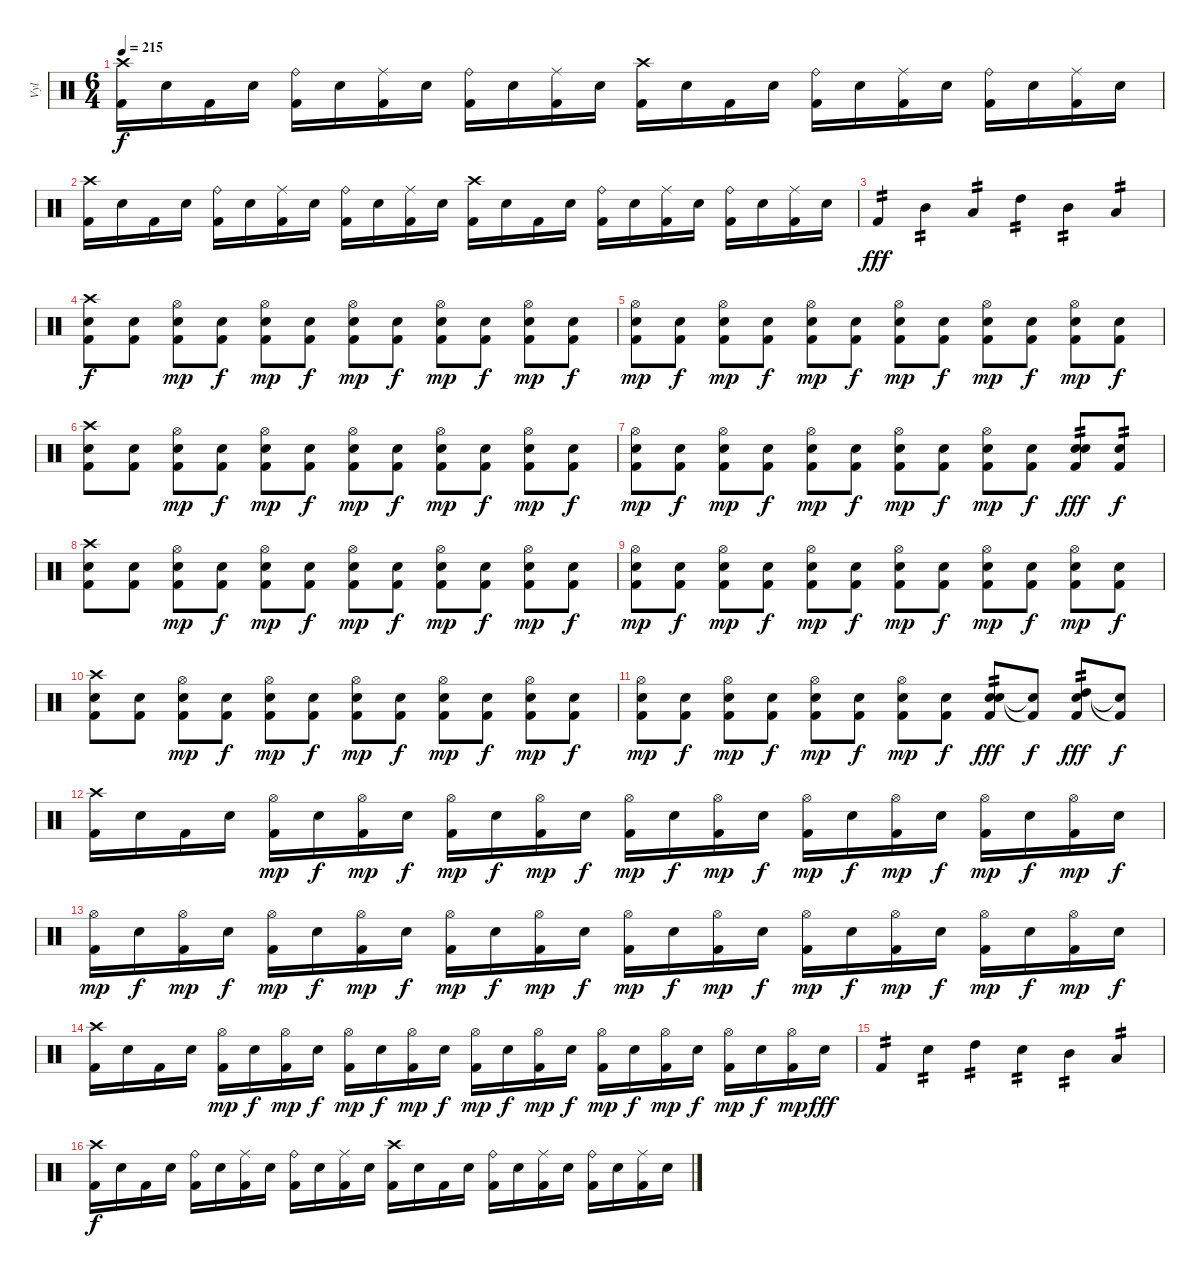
\track ("Vyl" "Vyl") {instrument percussion}
\staff {score}
\articulation defaults
\ts (6 4)
\tempo 215
\clef neutral
\ks c
("Crash high (hit)" "Kick (hit) 2").16{dy f} "Snare (hit) 2".16 "Kick (hit) 2".16 "Snare (hit) 2".16 ("Ride (bell)" "Kick (hit) 2").16 "Snare (hit) 2".16 ("Ride (middle)" "Kick (hit) 2").16 "Snare (hit) 2".16 ("Ride (bell)" "Kick (hit) 2").16 "Snare (hit) 2".16 ("Ride (middle)" "Kick (hit) 2").16 "Snare (hit) 2".16 ("Crash high (hit)" "Kick (hit) 2").16 "Snare (hit) 2".16 "Kick (hit) 2".16 "Snare (hit) 2".16 ("Ride (bell)" "Kick (hit) 2").16 "Snare (hit) 2".16 ("Ride (middle)" "Kick (hit) 2").16 "Snare (hit) 2".16 ("Ride (bell)" "Kick (hit) 2").16 "Snare (hit) 2".16 ("Ride (middle)" "Kick (hit) 2").16 "Snare (hit) 2".16 |
("Crash high (hit)" "Kick (hit) 2").16 "Snare (hit) 2".16 "Kick (hit) 2".16 "Snare (hit) 2".16 ("Ride (bell)" "Kick (hit) 2").16 "Snare (hit) 2".16 ("Ride (middle)" "Kick (hit) 2").16 "Snare (hit) 2".16 ("Ride (bell)" "Kick (hit) 2").16 "Snare (hit) 2".16 ("Ride (middle)" "Kick (hit) 2").16 "Snare (hit) 2".16 ("Crash high (hit)" "Kick (hit) 2").16 "Snare (hit) 2".16 "Kick (hit) 2".16 "Snare (hit) 2".16 ("Ride (bell)" "Kick (hit) 2").16 "Snare (hit) 2".16 ("Ride (middle)" "Kick (hit) 2").16 "Snare (hit) 2".16 ("Ride (bell)" "Kick (hit) 2").16 "Snare (hit) 2".16 ("Ride (middle)" "Kick (hit) 2").16 "Snare (hit) 2".16 |
"Kick (hit) 2".4{tp 2 dy fff} "Mid Tom (hit)".4{tp 2} "Low Tom (hit)".4{tp 2} "High Tom (hit)".4{tp 2} "Mid Tom (hit)".4{tp 2} "Low Tom (hit)".4{tp 2} |
("Crash high (hit)" "Snare (hit) 2" "Kick (hit) 2").8{dy f} ("Snare (hit) 2" "Kick (hit) 2").8 ("Hi-Hat (open)" "Snare (hit) 2" "Kick (hit) 2").8{dy mp} ("Snare (hit) 2" "Kick (hit) 2").8{dy f} ("Hi-Hat (open)" "Snare (hit) 2" "Kick (hit) 2").8{dy mp} ("Snare (hit) 2" "Kick (hit) 2").8{dy f} ("Hi-Hat (open)" "Snare (hit) 2" "Kick (hit) 2").8{dy mp} ("Snare (hit) 2" "Kick (hit) 2").8{dy f} ("Hi-Hat (open)" "Snare (hit) 2" "Kick (hit) 2").8{dy mp} ("Snare (hit) 2" "Kick (hit) 2").8{dy f} ("Hi-Hat (open)" "Snare (hit) 2" "Kick (hit) 2").8{dy mp} ("Snare (hit) 2" "Kick (hit) 2").8{dy f} |
("Hi-Hat (open)" "Snare (hit) 2" "Kick (hit) 2").8{dy mp} ("Snare (hit) 2" "Kick (hit) 2").8{dy f} ("Hi-Hat (open)" "Snare (hit) 2" "Kick (hit) 2").8{dy mp} ("Snare (hit) 2" "Kick (hit) 2").8{dy f} ("Hi-Hat (open)" "Snare (hit) 2" "Kick (hit) 2").8{dy mp} ("Snare (hit) 2" "Kick (hit) 2").8{dy f} ("Hi-Hat (open)" "Snare (hit) 2" "Kick (hit) 2").8{dy mp} ("Snare (hit) 2" "Kick (hit) 2").8{dy f} ("Hi-Hat (open)" "Snare (hit) 2" "Kick (hit) 2").8{dy mp} ("Snare (hit) 2" "Kick (hit) 2").8{dy f} ("Hi-Hat (open)" "Snare (hit) 2" "Kick (hit) 2").8{dy mp} ("Snare (hit) 2" "Kick (hit) 2").8{dy f} |
("Crash high (hit)" "Snare (hit) 2" "Kick (hit) 2").8 ("Snare (hit) 2" "Kick (hit) 2").8 ("Hi-Hat (open)" "Snare (hit) 2" "Kick (hit) 2").8{dy mp} ("Snare (hit) 2" "Kick (hit) 2").8{dy f} ("Hi-Hat (open)" "Snare (hit) 2" "Kick (hit) 2").8{dy mp} ("Snare (hit) 2" "Kick (hit) 2").8{dy f} ("Hi-Hat (open)" "Snare (hit) 2" "Kick (hit) 2").8{dy mp} ("Snare (hit) 2" "Kick (hit) 2").8{dy f} ("Hi-Hat (open)" "Snare (hit) 2" "Kick (hit) 2").8{dy mp} ("Snare (hit) 2" "Kick (hit) 2").8{dy f} ("Hi-Hat (open)" "Snare (hit) 2" "Kick (hit) 2").8{dy mp} ("Snare (hit) 2" "Kick (hit) 2").8{dy f} |
("Hi-Hat (open)" "Snare (hit) 2" "Kick (hit) 2").8{dy mp} ("Snare (hit) 2" "Kick (hit) 2").8{dy f} ("Hi-Hat (open)" "Snare (hit) 2" "Kick (hit) 2").8{dy mp} ("Snare (hit) 2" "Kick (hit) 2").8{dy f} ("Hi-Hat (open)" "Snare (hit) 2" "Kick (hit) 2").8{dy mp} ("Snare (hit) 2" "Kick (hit) 2").8{dy f} ("Hi-Hat (open)" "Snare (hit) 2" "Kick (hit) 2").8{dy mp} ("Snare (hit) 2" "Kick (hit) 2").8{dy f} ("Hi-Hat (open)" "Snare (hit) 2" "Kick (hit) 2").8{dy mp} ("Snare (hit) 2" "Kick (hit) 2").8{dy f} ("Snare (hit)" "Snare (hit) 2" "Kick (hit) 2").8{tp 2 dy fff} ("Snare (hit)" "Kick (hit) 2").8{tp 2 dy f} |
("Crash high (hit)" "Snare (hit) 2" "Kick (hit) 2").8 ("Snare (hit) 2" "Kick (hit) 2").8 ("Hi-Hat (open)" "Snare (hit) 2" "Kick (hit) 2").8{dy mp} ("Snare (hit) 2" "Kick (hit) 2").8{dy f} ("Hi-Hat (open)" "Snare (hit) 2" "Kick (hit) 2").8{dy mp} ("Snare (hit) 2" "Kick (hit) 2").8{dy f} ("Hi-Hat (open)" "Snare (hit) 2" "Kick (hit) 2").8{dy mp} ("Snare (hit) 2" "Kick (hit) 2").8{dy f} ("Hi-Hat (open)" "Snare (hit) 2" "Kick (hit) 2").8{dy mp} ("Snare (hit) 2" "Kick (hit) 2").8{dy f} ("Hi-Hat (open)" "Snare (hit) 2" "Kick (hit) 2").8{dy mp} ("Snare (hit) 2" "Kick (hit) 2").8{dy f} |
("Hi-Hat (open)" "Snare (hit) 2" "Kick (hit) 2").8{dy mp} ("Snare (hit) 2" "Kick (hit) 2").8{dy f} ("Hi-Hat (open)" "Snare (hit) 2" "Kick (hit) 2").8{dy mp} ("Snare (hit) 2" "Kick (hit) 2").8{dy f} ("Hi-Hat (open)" "Snare (hit) 2" "Kick (hit) 2").8{dy mp} ("Snare (hit) 2" "Kick (hit) 2").8{dy f} ("Hi-Hat (open)" "Snare (hit) 2" "Kick (hit) 2").8{dy mp} ("Snare (hit) 2" "Kick (hit) 2").8{dy f} ("Hi-Hat (open)" "Snare (hit) 2" "Kick (hit) 2").8{dy mp} ("Snare (hit) 2" "Kick (hit) 2").8{dy f} ("Hi-Hat (open)" "Snare (hit) 2" "Kick (hit) 2").8{dy mp} ("Snare (hit) 2" "Kick (hit) 2").8{dy f} |
("Crash high (hit)" "Snare (hit) 2" "Kick (hit) 2").8 ("Snare (hit) 2" "Kick (hit) 2").8 ("Hi-Hat (open)" "Snare (hit) 2" "Kick (hit) 2").8{dy mp} ("Snare (hit) 2" "Kick (hit) 2").8{dy f} ("Hi-Hat (open)" "Snare (hit) 2" "Kick (hit) 2").8{dy mp} ("Snare (hit) 2" "Kick (hit) 2").8{dy f} ("Hi-Hat (open)" "Snare (hit) 2" "Kick (hit) 2").8{dy mp} ("Snare (hit) 2" "Kick (hit) 2").8{dy f} ("Hi-Hat (open)" "Snare (hit) 2" "Kick (hit) 2").8{dy mp} ("Snare (hit) 2" "Kick (hit) 2").8{dy f} ("Hi-Hat (open)" "Snare (hit) 2" "Kick (hit) 2").8{dy mp} ("Snare (hit) 2" "Kick (hit) 2").8{dy f} |
("Hi-Hat (open)" "Snare (hit) 2" "Kick (hit) 2").8{dy mp} ("Snare (hit) 2" "Kick (hit) 2").8{dy f} ("Hi-Hat (open)" "Snare (hit) 2" "Kick (hit) 2").8{dy mp} ("Snare (hit) 2" "Kick (hit) 2").8{dy f} ("Hi-Hat (open)" "Snare (hit) 2" "Kick (hit) 2").8{dy mp} ("Snare (hit) 2" "Kick (hit) 2").8{dy f} ("Hi-Hat (open)" "Snare (hit) 2" "Kick (hit) 2").8{dy mp} ("Snare (hit) 2" "Kick (hit) 2").8{dy f} ("Snare (hit)" "Snare (hit) 2" "Kick (hit) 2").8{tp 2 dy fff} ("Snare (hit) 2"{t} "Kick (hit) 2"{t}).8{dy f} ("Snare (hit)" "High Tom (hit)" "Kick (hit) 2").8{tp 2 dy fff} ("Snare (hit)"{t} "Kick (hit) 2"{t}).8{dy f} |
("Crash high (hit)" "Kick (hit) 2").16 "Snare (hit) 2".16 "Kick (hit) 2".16 "Snare (hit) 2".16 ("Hi-Hat (open)" "Kick (hit) 2").16{dy mp} "Snare (hit) 2".16{dy f} ("Hi-Hat (open)" "Kick (hit) 2").16{dy mp} "Snare (hit) 2".16{dy f} ("Hi-Hat (open)" "Kick (hit) 2").16{dy mp} "Snare (hit) 2".16{dy f} ("Hi-Hat (open)" "Kick (hit) 2").16{dy mp} "Snare (hit) 2".16{dy f} ("Hi-Hat (open)" "Kick (hit) 2").16{dy mp} "Snare (hit) 2".16{dy f} ("Hi-Hat (open)" "Kick (hit) 2").16{dy mp} "Snare (hit) 2".16{dy f} ("Hi-Hat (open)" "Kick (hit) 2").16{dy mp} "Snare (hit) 2".16{dy f} ("Hi-Hat (open)" "Kick (hit) 2").16{dy mp} "Snare (hit) 2".16{dy f} ("Hi-Hat (open)" "Kick (hit) 2").16{dy mp} "Snare (hit) 2".16{dy f} ("Hi-Hat (open)" "Kick (hit) 2").16{dy mp} "Snare (hit) 2".16{dy f} |
("Hi-Hat (open)" "Kick (hit) 2").16{dy mp} "Snare (hit) 2".16{dy f} ("Hi-Hat (open)" "Kick (hit) 2").16{dy mp} "Snare (hit) 2".16{dy f} ("Hi-Hat (open)" "Kick (hit) 2").16{dy mp} "Snare (hit) 2".16{dy f} ("Hi-Hat (open)" "Kick (hit) 2").16{dy mp} "Snare (hit) 2".16{dy f} ("Hi-Hat (open)" "Kick (hit) 2").16{dy mp} "Snare (hit) 2".16{dy f} ("Hi-Hat (open)" "Kick (hit) 2").16{dy mp} "Snare (hit) 2".16{dy f} ("Hi-Hat (open)" "Kick (hit) 2").16{dy mp} "Snare (hit) 2".16{dy f} ("Hi-Hat (open)" "Kick (hit) 2").16{dy mp} "Snare (hit) 2".16{dy f} ("Hi-Hat (open)" "Kick (hit) 2").16{dy mp} "Snare (hit) 2".16{dy f} ("Hi-Hat (open)" "Kick (hit) 2").16{dy mp} "Snare (hit) 2".16{dy f} ("Hi-Hat (open)" "Kick (hit) 2").16{dy mp} "Snare (hit) 2".16{dy f} ("Hi-Hat (open)" "Kick (hit) 2").16{dy mp} "Snare (hit) 2".16{dy f} |
("Crash high (hit)" "Kick (hit) 2").16 "Snare (hit) 2".16 "Kick (hit) 2".16 "Snare (hit) 2".16 ("Hi-Hat (open)" "Kick (hit) 2").16{dy mp} "Snare (hit) 2".16{dy f} ("Hi-Hat (open)" "Kick (hit) 2").16{dy mp} "Snare (hit) 2".16{dy f} ("Hi-Hat (open)" "Kick (hit) 2").16{dy mp} "Snare (hit) 2".16{dy f} ("Hi-Hat (open)" "Kick (hit) 2").16{dy mp} "Snare (hit) 2".16{dy f} ("Hi-Hat (open)" "Kick (hit) 2").16{dy mp} "Snare (hit) 2".16{dy f} ("Hi-Hat (open)" "Kick (hit) 2").16{dy mp} "Snare (hit) 2".16{dy f} ("Hi-Hat (open)" "Kick (hit) 2").16{dy mp} "Snare (hit) 2".16{dy f} ("Hi-Hat (open)" "Kick (hit) 2").16{dy mp} "Snare (hit) 2".16{dy f} ("Hi-Hat (open)" "Kick (hit) 2").16{dy mp} "Snare (hit) 2".16{dy f} ("Hi-Hat (open)" "Kick (hit) 2").16{dy mp} "Snare (hit) 2".16{dy fff} |
"Kick (hit) 2".4{tp 2} "Snare (hit) 2".4{tp 2} "High Tom (hit)".4{tp 2} "Snare (hit) 2".4{tp 2} "Mid Tom (hit)".4{tp 2} "Low Tom (hit)".4{tp 2} |
("Crash high (hit)" "Kick (hit) 2").16{dy f} "Snare (hit) 2".16 "Kick (hit) 2".16 "Snare (hit) 2".16 ("Ride (bell)" "Kick (hit) 2").16 "Snare (hit) 2".16 ("Ride (middle)" "Kick (hit) 2").16 "Snare (hit) 2".16 ("Ride (bell)" "Kick (hit) 2").16 "Snare (hit) 2".16 ("Ride (middle)" "Kick (hit) 2").16 "Snare (hit) 2".16 ("Crash high (hit)" "Kick (hit) 2").16 "Snare (hit) 2".16 "Kick (hit) 2".16 "Snare (hit) 2".16 ("Ride (bell)" "Kick (hit) 2").16 "Snare (hit) 2".16 ("Ride (middle)" "Kick (hit) 2").16 "Snare (hit) 2".16 ("Ride (bell)" "Kick (hit) 2").16 "Snare (hit) 2".16 ("Ride (middle)" "Kick (hit) 2").16 "Snare (hit) 2".16
